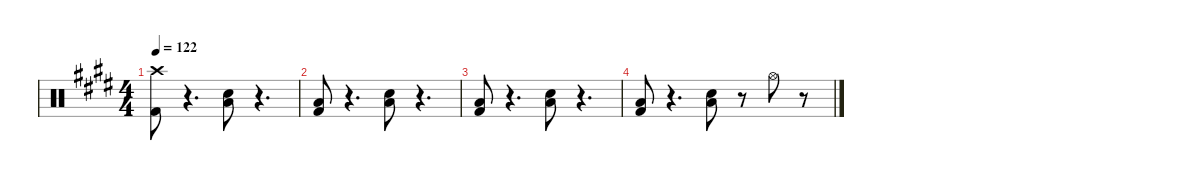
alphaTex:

\defaultSystemsLayout 4
\hideDynamics
\bracketExtendMode nobrackets
\otherSystemsTrackNameOrientation horizontal
\track ("Shinya" "  ") {instrument percussion}
\staff {score}
\articulation defaults
\ts (4 4)
\tempo 122
\clef neutral
\ks c#minor
("Kick (hit) 2"{acc forcenatural} "Crash high (hit)"{acc #}).8{dy fff} r.4{d} ("Snare (hit) 2"{acc forcenatural} "Low Tom (hit)"{acc forcenatural}).8 r.4{d} |
("Kick (hit) 2"{acc forcenatural} "Low Tom (hit)"{acc forcenatural}).8 r.4{d} ("Snare (hit) 2"{acc forcenatural} "Low Tom (hit)"{acc forcenatural}).8 r.4{d} |
("Kick (hit) 2"{acc forcenatural} "Low Tom (hit)"{acc forcenatural}).8 r.4{d} ("Snare (hit) 2"{acc forcenatural} "Low Tom (hit)"{acc forcenatural}).8 r.4{d} |
("Kick (hit) 2"{acc forcenatural} "Low Tom (hit)"{acc forcenatural}).8 r.4{d} ("Snare (hit) 2"{acc forcenatural} "Low Tom (hit)"{acc forcenatural}).8 r.8 "Hi-Hat (open)"{acc #}.8 r.8
